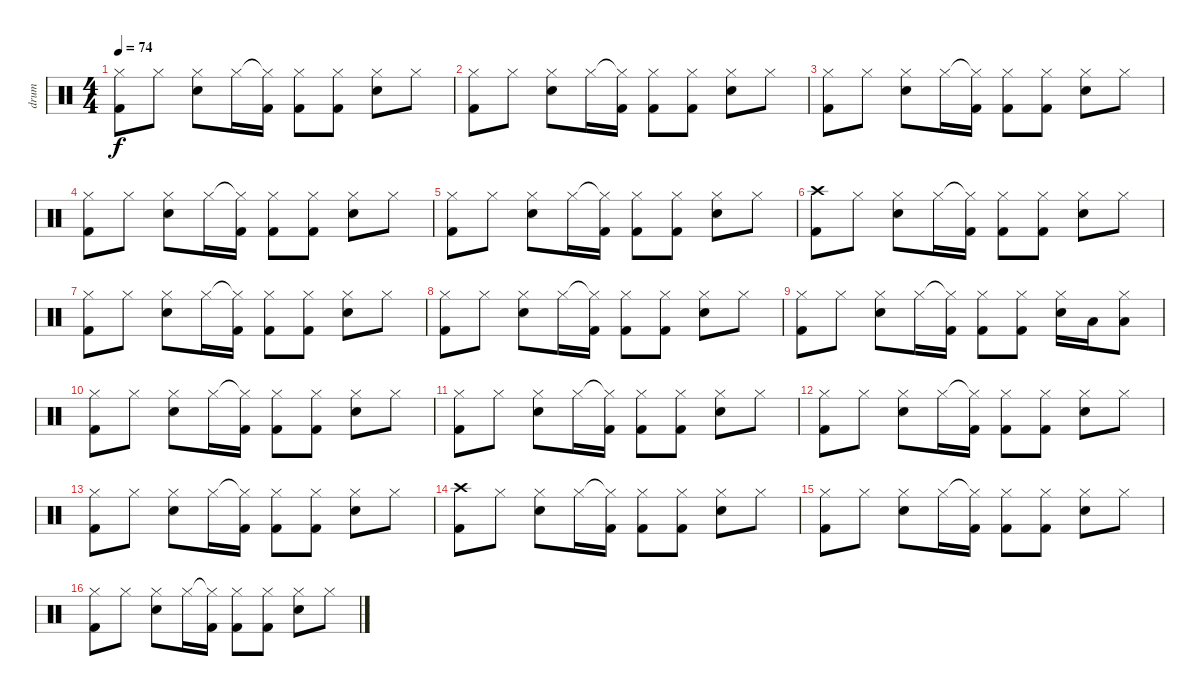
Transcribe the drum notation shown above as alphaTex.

\track ("drum" "drum") {instrument percussion}
\staff {score}
\articulation defaults
\ts (4 4)
\tempo 74
\clef neutral
\ks c
("Hi-Hat (closed)" "Kick (hit) 2").8{dy f} "Hi-Hat (closed)".8 ("Hi-Hat (closed)" "Electric Snare (hit)").8 "Hi-Hat (closed)".16 ("Hi-Hat (closed)"{t} "Kick (hit) 2").16 ("Hi-Hat (closed)" "Kick (hit) 2").8 ("Hi-Hat (closed)" "Kick (hit) 2").8 ("Hi-Hat (closed)" "Electric Snare (hit)").8 "Hi-Hat (closed)".8 |
("Hi-Hat (closed)" "Kick (hit) 2").8 "Hi-Hat (closed)".8 ("Hi-Hat (closed)" "Electric Snare (hit)").8 "Hi-Hat (closed)".16 ("Hi-Hat (closed)"{t} "Kick (hit) 2").16 ("Hi-Hat (closed)" "Kick (hit) 2").8 ("Hi-Hat (closed)" "Kick (hit) 2").8 ("Hi-Hat (closed)" "Electric Snare (hit)").8 "Hi-Hat (closed)".8 |
("Hi-Hat (closed)" "Kick (hit) 2").8 "Hi-Hat (closed)".8 ("Hi-Hat (closed)" "Electric Snare (hit)").8 "Hi-Hat (closed)".16 ("Hi-Hat (closed)"{t} "Kick (hit) 2").16 ("Hi-Hat (closed)" "Kick (hit) 2").8 ("Hi-Hat (closed)" "Kick (hit) 2").8 ("Hi-Hat (closed)" "Electric Snare (hit)").8 "Hi-Hat (closed)".8 |
("Hi-Hat (closed)" "Kick (hit) 2").8 "Hi-Hat (closed)".8 ("Hi-Hat (closed)" "Electric Snare (hit)").8 "Hi-Hat (closed)".16 ("Hi-Hat (closed)"{t} "Kick (hit) 2").16 ("Hi-Hat (closed)" "Kick (hit) 2").8 ("Hi-Hat (closed)" "Kick (hit) 2").8 ("Hi-Hat (closed)" "Electric Snare (hit)").8 "Hi-Hat (closed)".8 |
("Hi-Hat (closed)" "Kick (hit) 2").8 "Hi-Hat (closed)".8 ("Hi-Hat (closed)" "Electric Snare (hit)").8 "Hi-Hat (closed)".16 ("Hi-Hat (closed)"{t} "Kick (hit) 2").16 ("Hi-Hat (closed)" "Kick (hit) 2").8 ("Hi-Hat (closed)" "Kick (hit) 2").8 ("Hi-Hat (closed)" "Electric Snare (hit)").8 "Hi-Hat (closed)".8 |
("Crash high (hit)" "Kick (hit) 2").8 "Hi-Hat (closed)".8 ("Hi-Hat (closed)" "Electric Snare (hit)").8 "Hi-Hat (closed)".16 ("Hi-Hat (closed)"{t} "Kick (hit) 2").16 ("Hi-Hat (closed)" "Kick (hit) 2").8 ("Hi-Hat (closed)" "Kick (hit) 2").8 ("Hi-Hat (closed)" "Electric Snare (hit)").8 "Hi-Hat (closed)".8 |
("Hi-Hat (closed)" "Kick (hit) 2").8 "Hi-Hat (closed)".8 ("Hi-Hat (closed)" "Electric Snare (hit)").8 "Hi-Hat (closed)".16 ("Hi-Hat (closed)"{t} "Kick (hit) 2").16 ("Hi-Hat (closed)" "Kick (hit) 2").8 ("Hi-Hat (closed)" "Kick (hit) 2").8 ("Hi-Hat (closed)" "Electric Snare (hit)").8 "Hi-Hat (closed)".8 |
("Hi-Hat (closed)" "Kick (hit) 2").8 "Hi-Hat (closed)".8 ("Hi-Hat (closed)" "Electric Snare (hit)").8 "Hi-Hat (closed)".16 ("Hi-Hat (closed)"{t} "Kick (hit) 2").16 ("Hi-Hat (closed)" "Kick (hit) 2").8 ("Hi-Hat (closed)" "Kick (hit) 2").8 ("Hi-Hat (closed)" "Electric Snare (hit)").8 "Hi-Hat (closed)".8 |
("Hi-Hat (closed)" "Kick (hit) 2").8 "Hi-Hat (closed)".8 ("Hi-Hat (closed)" "Electric Snare (hit)").8 "Hi-Hat (closed)".16 ("Hi-Hat (closed)"{t} "Kick (hit) 2").16 ("Hi-Hat (closed)" "Kick (hit) 2").8 ("Hi-Hat (closed)" "Kick (hit) 2").8 ("Hi-Hat (closed)" "Electric Snare (hit)").16 "Low Tom (hit)".16 ("Hi-Hat (closed)" "Low Tom (hit)").8 |
("Hi-Hat (closed)" "Kick (hit) 2").8 "Hi-Hat (closed)".8 ("Hi-Hat (closed)" "Electric Snare (hit)").8 "Hi-Hat (closed)".16 ("Hi-Hat (closed)"{t} "Kick (hit) 2").16 ("Hi-Hat (closed)" "Kick (hit) 2").8 ("Hi-Hat (closed)" "Kick (hit) 2").8 ("Hi-Hat (closed)" "Electric Snare (hit)").8 "Hi-Hat (closed)".8 |
("Hi-Hat (closed)" "Kick (hit) 2").8 "Hi-Hat (closed)".8 ("Hi-Hat (closed)" "Electric Snare (hit)").8 "Hi-Hat (closed)".16 ("Hi-Hat (closed)"{t} "Kick (hit) 2").16 ("Hi-Hat (closed)" "Kick (hit) 2").8 ("Hi-Hat (closed)" "Kick (hit) 2").8 ("Hi-Hat (closed)" "Electric Snare (hit)").8 "Hi-Hat (closed)".8 |
("Hi-Hat (closed)" "Kick (hit) 2").8 "Hi-Hat (closed)".8 ("Hi-Hat (closed)" "Electric Snare (hit)").8 "Hi-Hat (closed)".16 ("Hi-Hat (closed)"{t} "Kick (hit) 2").16 ("Hi-Hat (closed)" "Kick (hit) 2").8 ("Hi-Hat (closed)" "Kick (hit) 2").8 ("Hi-Hat (closed)" "Electric Snare (hit)").8 "Hi-Hat (closed)".8 |
("Hi-Hat (closed)" "Kick (hit) 2").8 "Hi-Hat (closed)".8 ("Hi-Hat (closed)" "Electric Snare (hit)").8 "Hi-Hat (closed)".16 ("Hi-Hat (closed)"{t} "Kick (hit) 2").16 ("Hi-Hat (closed)" "Kick (hit) 2").8 ("Hi-Hat (closed)" "Kick (hit) 2").8 ("Hi-Hat (closed)" "Electric Snare (hit)").8 "Hi-Hat (closed)".8 |
("Crash high (hit)" "Kick (hit) 2").8 "Hi-Hat (closed)".8 ("Hi-Hat (closed)" "Electric Snare (hit)").8 "Hi-Hat (closed)".16 ("Hi-Hat (closed)"{t} "Kick (hit) 2").16 ("Hi-Hat (closed)" "Kick (hit) 2").8 ("Hi-Hat (closed)" "Kick (hit) 2").8 ("Hi-Hat (closed)" "Electric Snare (hit)").8 "Hi-Hat (closed)".8 |
("Hi-Hat (closed)" "Kick (hit) 2").8 "Hi-Hat (closed)".8 ("Hi-Hat (closed)" "Electric Snare (hit)").8 "Hi-Hat (closed)".16 ("Hi-Hat (closed)"{t} "Kick (hit) 2").16 ("Hi-Hat (closed)" "Kick (hit) 2").8 ("Hi-Hat (closed)" "Kick (hit) 2").8 ("Hi-Hat (closed)" "Electric Snare (hit)").8 "Hi-Hat (closed)".8 |
("Hi-Hat (closed)" "Kick (hit) 2").8 "Hi-Hat (closed)".8 ("Hi-Hat (closed)" "Electric Snare (hit)").8 "Hi-Hat (closed)".16 ("Hi-Hat (closed)"{t} "Kick (hit) 2").16 ("Hi-Hat (closed)" "Kick (hit) 2").8 ("Hi-Hat (closed)" "Kick (hit) 2").8 ("Hi-Hat (closed)" "Electric Snare (hit)").8 "Hi-Hat (closed)".8
